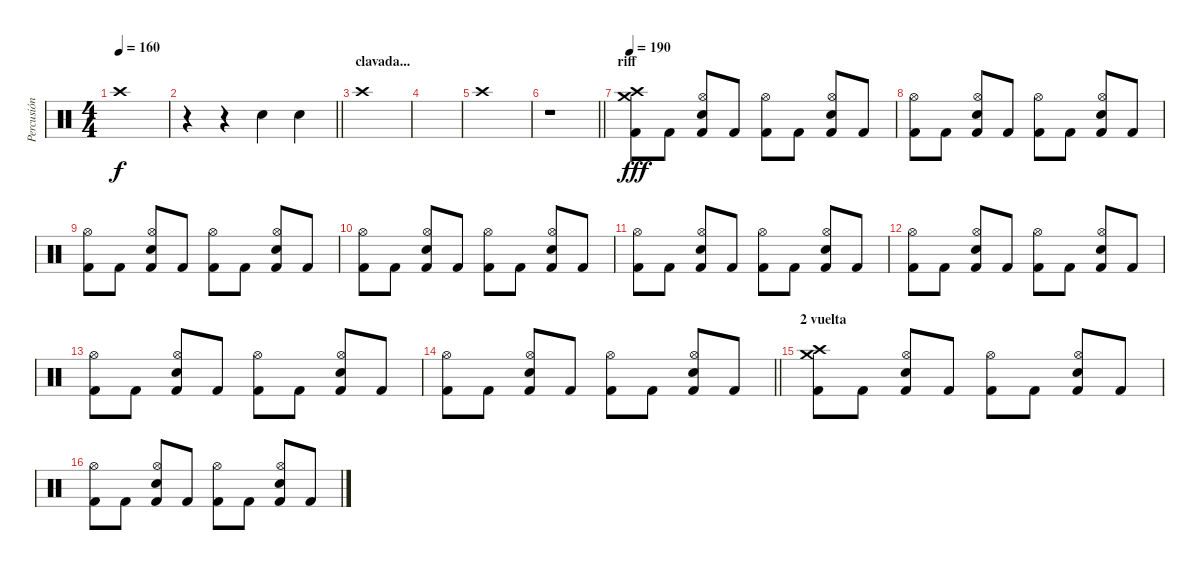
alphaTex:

\track ("Percusión" "Percusión") {instrument percussion}
\staff {score}
\articulation defaults
\ts (4 4)
\tempo 160
\clef neutral
\ks c "Crash high (hit)".1{dy f}
|
\barLineRight lightlight
r.4 r.4 "Snare (hit) 2".4 "Snare (hit) 2".4 |
\section ("" "clavada...")
"Crash high (hit)".1 |
|
"Crash high (hit)".1 |
\barLineRight lightlight
r.1 |
\section ("" "riff")
\tempo 190
("Crash high (hit)" "Crash medium (hit)" "Kick (hit) 2").8{dy fff} "Kick (hit) 2".8 ("Hi-Hat (open)" "Electric Snare (hit)" "Kick (hit) 2").8 "Kick (hit) 2".8 ("Hi-Hat (open)" "Kick (hit) 2").8 "Kick (hit) 2".8 ("Hi-Hat (open)" "Electric Snare (hit)" "Kick (hit) 2").8 "Kick (hit) 2".8 |
("Hi-Hat (open)" "Kick (hit) 2").8 "Kick (hit) 2".8 ("Hi-Hat (open)" "Electric Snare (hit)" "Kick (hit) 2").8 "Kick (hit) 2".8 ("Hi-Hat (open)" "Kick (hit) 2").8 "Kick (hit) 2".8 ("Hi-Hat (open)" "Electric Snare (hit)" "Kick (hit) 2").8 "Kick (hit) 2".8 |
("Hi-Hat (open)" "Kick (hit) 2").8 "Kick (hit) 2".8 ("Hi-Hat (open)" "Electric Snare (hit)" "Kick (hit) 2").8 "Kick (hit) 2".8 ("Hi-Hat (open)" "Kick (hit) 2").8 "Kick (hit) 2".8 ("Hi-Hat (open)" "Electric Snare (hit)" "Kick (hit) 2").8 "Kick (hit) 2".8 |
("Hi-Hat (open)" "Kick (hit) 2").8 "Kick (hit) 2".8 ("Hi-Hat (open)" "Electric Snare (hit)" "Kick (hit) 2").8 "Kick (hit) 2".8 ("Hi-Hat (open)" "Kick (hit) 2").8 "Kick (hit) 2".8 ("Hi-Hat (open)" "Electric Snare (hit)" "Kick (hit) 2").8 "Kick (hit) 2".8 |
("Hi-Hat (open)" "Kick (hit) 2").8 "Kick (hit) 2".8 ("Hi-Hat (open)" "Electric Snare (hit)" "Kick (hit) 2").8 "Kick (hit) 2".8 ("Hi-Hat (open)" "Kick (hit) 2").8 "Kick (hit) 2".8 ("Hi-Hat (open)" "Electric Snare (hit)" "Kick (hit) 2").8 "Kick (hit) 2".8 |
("Hi-Hat (open)" "Kick (hit) 2").8 "Kick (hit) 2".8 ("Hi-Hat (open)" "Electric Snare (hit)" "Kick (hit) 2").8 "Kick (hit) 2".8 ("Hi-Hat (open)" "Kick (hit) 2").8 "Kick (hit) 2".8 ("Hi-Hat (open)" "Electric Snare (hit)" "Kick (hit) 2").8 "Kick (hit) 2".8 |
("Hi-Hat (open)" "Kick (hit) 2").8 "Kick (hit) 2".8 ("Hi-Hat (open)" "Electric Snare (hit)" "Kick (hit) 2").8 "Kick (hit) 2".8 ("Hi-Hat (open)" "Kick (hit) 2").8 "Kick (hit) 2".8 ("Hi-Hat (open)" "Electric Snare (hit)" "Kick (hit) 2").8 "Kick (hit) 2".8 |
\barLineRight lightlight
("Hi-Hat (open)" "Kick (hit) 2").8 "Kick (hit) 2".8 ("Hi-Hat (open)" "Electric Snare (hit)" "Kick (hit) 2").8 "Kick (hit) 2".8 ("Hi-Hat (open)" "Kick (hit) 2").8 "Kick (hit) 2".8 ("Hi-Hat (open)" "Electric Snare (hit)" "Kick (hit) 2").8 "Kick (hit) 2".8 |
\section ("" "2 vuelta")
("Crash high (hit)" "Crash medium (hit)" "Kick (hit) 2").8 "Kick (hit) 2".8 ("Hi-Hat (open)" "Electric Snare (hit)" "Kick (hit) 2").8 "Kick (hit) 2".8 ("Hi-Hat (open)" "Kick (hit) 2").8 "Kick (hit) 2".8 ("Hi-Hat (open)" "Electric Snare (hit)" "Kick (hit) 2").8 "Kick (hit) 2".8 |
("Hi-Hat (open)" "Kick (hit) 2").8 "Kick (hit) 2".8 ("Hi-Hat (open)" "Electric Snare (hit)" "Kick (hit) 2").8 "Kick (hit) 2".8 ("Hi-Hat (open)" "Kick (hit) 2").8 "Kick (hit) 2".8 ("Hi-Hat (open)" "Electric Snare (hit)" "Kick (hit) 2").8 "Kick (hit) 2".8
